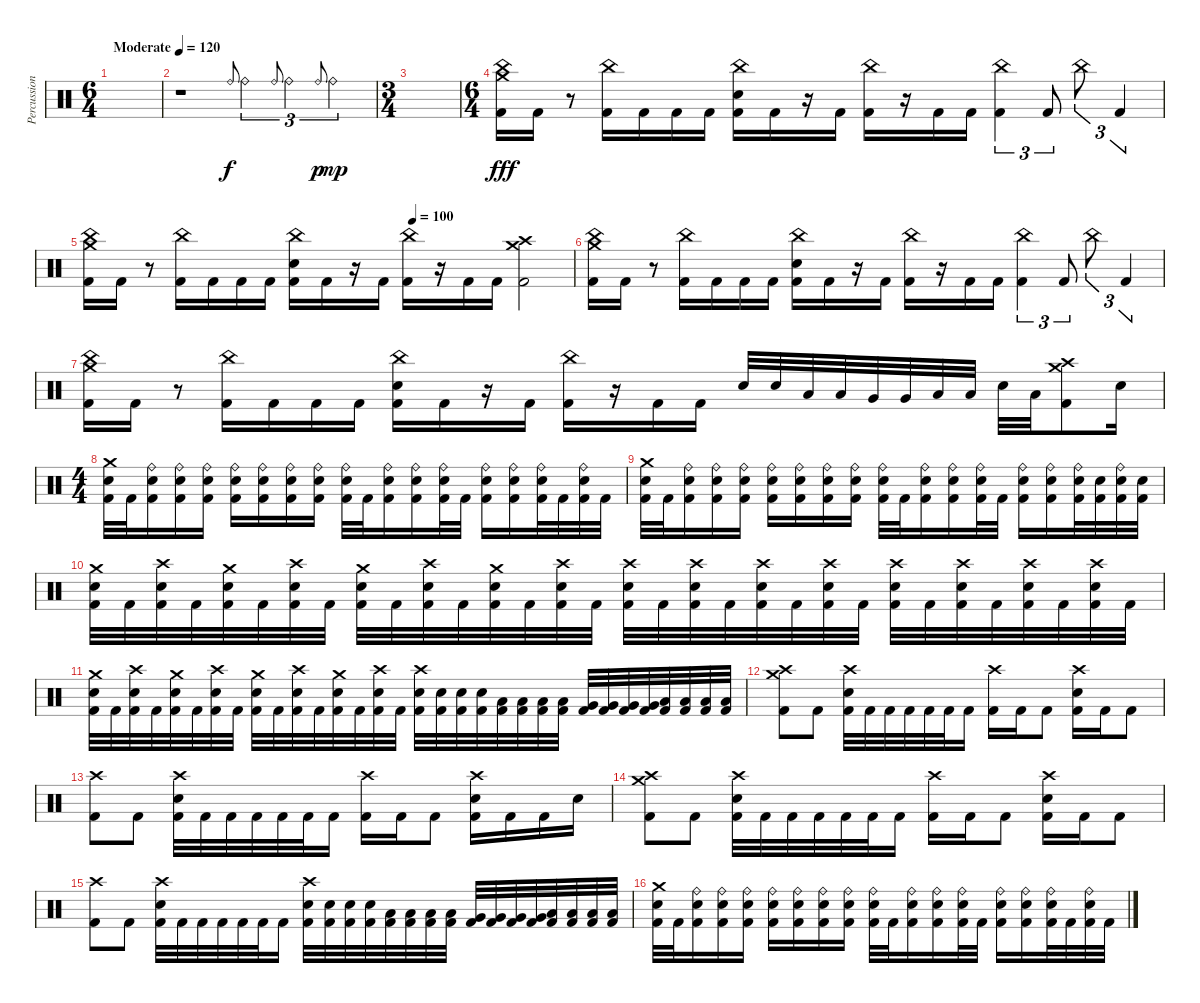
\track ("Percussion" "Percussion") {instrument percussion}
\staff {score}
\articulation defaults
\ts (6 4)
\tempo (120 "Moderate")
\clef neutral
\ks c
|
r.1 "Ride (bell)".8{gr onbeat} "Ride (bell)".4{tu (3 2)} "Ride (bell)".8{gr onbeat} "Ride (bell)".4{tu (3 2)} "Ride (bell)".8{gr onbeat dy p} "Ride (bell)".4{tu (3 2) dy mp} |
\ts (3 4)
|
\ts (6 4)
("China (hit)" "Crash medium (hit)" "Kick (hit) 2").16{dy fff} "Kick (hit) 2".16 r.8 ("China (hit)" "Kick (hit) 2").16 "Kick (hit) 2".16 "Kick (hit) 2".16 "Kick (hit) 2".16 ("China (hit)" "Electric Snare (hit)" "Kick (hit) 2").16 "Kick (hit) 2".16 r.16 "Kick (hit) 2".16 ("China (hit)" "Kick (hit) 2").16 r.16 "Kick (hit) 2".16 "Kick (hit) 2".16 ("China (hit)" "Kick (hit) 2").4{tu (3 2)} "Kick (hit) 2".8{tu (3 2)} "China (hit)".8{tu (3 2)} "Kick (hit) 2".4{tu (3 2)} |
\tempo (100 0.6666666666666666)
("China (hit)" "Crash medium (hit)" "Kick (hit) 2").16 "Kick (hit) 2".16 r.8 ("China (hit)" "Kick (hit) 2").16 "Kick (hit) 2".16 "Kick (hit) 2".16 "Kick (hit) 2".16 ("China (hit)" "Electric Snare (hit)" "Kick (hit) 2").16 "Kick (hit) 2".16 r.16 "Kick (hit) 2".16 ("China (hit)" "Kick (hit) 2").16 r.16 "Kick (hit) 2".16 "Kick (hit) 2".16 ("Crash high (hit)" "Crash medium (hit)" "Kick (hit) 2").2 |
("China (hit)" "Crash medium (hit)" "Kick (hit) 2").16 "Kick (hit) 2".16 r.8 ("China (hit)" "Kick (hit) 2").16 "Kick (hit) 2".16 "Kick (hit) 2".16 "Kick (hit) 2".16 ("China (hit)" "Electric Snare (hit)" "Kick (hit) 2").16 "Kick (hit) 2".16 r.16 "Kick (hit) 2".16 ("China (hit)" "Kick (hit) 2").16 r.16 "Kick (hit) 2".16 "Kick (hit) 2".16 ("China (hit)" "Kick (hit) 2").4{tu (3 2)} "Kick (hit) 2".8{tu (3 2)} "China (hit)".8{tu (3 2)} "Kick (hit) 2".4{tu (3 2)} |
("China (hit)" "Crash medium (hit)" "Kick (hit) 2").16 "Kick (hit) 2".16 r.8 ("China (hit)" "Kick (hit) 2").16 "Kick (hit) 2".16 "Kick (hit) 2".16 "Kick (hit) 2".16 ("China (hit)" "Electric Snare (hit)" "Kick (hit) 2").16 "Kick (hit) 2".16 r.16 "Kick (hit) 2".16 ("China (hit)" "Kick (hit) 2").16 r.16 "Kick (hit) 2".16 "Kick (hit) 2".16 "Electric Snare (hit)".32 "Electric Snare (hit)".32 "Low Tom (hit)".32 "Low Tom (hit)".32 "Very Low Tom (hit)".32 "Very Low Tom (hit)".32 "Low Floor Tom (hit)".32 "Low Floor Tom (hit)".32 "Electric Snare (hit)".32 "Low Tom (hit)".32 ("Crash high (hit)" "Crash medium (hit)" "Kick (hit) 2").8 "Electric Snare (hit)".16 |
\ts (4 4)
("Crash medium (hit)" "Electric Snare (hit)" "Kick (hit) 2").32 "Kick (hit) 2".32 ("Ride (bell)" "Electric Snare (hit)" "Kick (hit) 2").16 ("Ride (bell)" "Electric Snare (hit)" "Kick (hit) 2").16 ("Ride (bell)" "Electric Snare (hit)" "Kick (hit) 2").16 ("Ride (bell)" "Electric Snare (hit)" "Kick (hit) 2").16 ("Ride (bell)" "Electric Snare (hit)" "Kick (hit) 2").16 ("Ride (bell)" "Electric Snare (hit)" "Kick (hit) 2").16 ("Ride (bell)" "Electric Snare (hit)" "Kick (hit) 2").16 ("Ride (bell)" "Electric Snare (hit)" "Kick (hit) 2").32 "Kick (hit) 2".32 ("Ride (bell)" "Electric Snare (hit)" "Kick (hit) 2").16 ("Ride (bell)" "Electric Snare (hit)" "Kick (hit) 2").16 ("Ride (bell)" "Electric Snare (hit)" "Kick (hit) 2").32 "Kick (hit) 2".32 ("Ride (bell)" "Electric Snare (hit)" "Kick (hit) 2").16 ("Ride (bell)" "Electric Snare (hit)" "Kick (hit) 2").16 ("Ride (bell)" "Electric Snare (hit)" "Kick (hit) 2").32 "Kick (hit) 2".32 ("Ride (bell)" "Electric Snare (hit)" "Kick (hit) 2").32 "Kick (hit) 2".32 |
("Crash medium (hit)" "Electric Snare (hit)" "Kick (hit) 2").32 "Kick (hit) 2".32 ("Ride (bell)" "Electric Snare (hit)" "Kick (hit) 2").16 ("Ride (bell)" "Electric Snare (hit)" "Kick (hit) 2").16 ("Ride (bell)" "Electric Snare (hit)" "Kick (hit) 2").16 ("Ride (bell)" "Electric Snare (hit)" "Kick (hit) 2").16 ("Ride (bell)" "Electric Snare (hit)" "Kick (hit) 2").16 ("Ride (bell)" "Electric Snare (hit)" "Kick (hit) 2").16 ("Ride (bell)" "Electric Snare (hit)" "Kick (hit) 2").16 ("Ride (bell)" "Electric Snare (hit)" "Kick (hit) 2").32 "Kick (hit) 2".32 ("Ride (bell)" "Electric Snare (hit)" "Kick (hit) 2").16 ("Ride (bell)" "Electric Snare (hit)" "Kick (hit) 2").16 ("Ride (bell)" "Electric Snare (hit)" "Kick (hit) 2").32 "Kick (hit) 2".32 ("Ride (bell)" "Electric Snare (hit)" "Kick (hit) 2").16 ("Ride (bell)" "Electric Snare (hit)" "Kick (hit) 2").16 ("Ride (bell)" "Electric Snare (hit)" "Kick (hit) 2").32 ("Electric Snare (hit)" "Kick (hit) 2").32 ("Ride (bell)" "Electric Snare (hit)" "Kick (hit) 2").32 ("Electric Snare (hit)" "Kick (hit) 2").32 |
("Crash medium (hit)" "Electric Snare (hit)" "Kick (hit) 2").32 "Kick (hit) 2".32 ("Crash high (hit)" "Electric Snare (hit)" "Kick (hit) 2").32 "Kick (hit) 2".32 ("Crash medium (hit)" "Electric Snare (hit)" "Kick (hit) 2").32 "Kick (hit) 2".32 ("Crash high (hit)" "Electric Snare (hit)" "Kick (hit) 2").32 "Kick (hit) 2".32 ("Crash medium (hit)" "Electric Snare (hit)" "Kick (hit) 2").32 "Kick (hit) 2".32 ("Crash high (hit)" "Electric Snare (hit)" "Kick (hit) 2").32 "Kick (hit) 2".32 ("Crash medium (hit)" "Electric Snare (hit)" "Kick (hit) 2").32 "Kick (hit) 2".32 ("Crash high (hit)" "Electric Snare (hit)" "Kick (hit) 2").32 "Kick (hit) 2".32 ("Crash high (hit)" "Electric Snare (hit)" "Kick (hit) 2").32 "Kick (hit) 2".32 ("Crash high (hit)" "Electric Snare (hit)" "Kick (hit) 2").32 "Kick (hit) 2".32 ("Crash high (hit)" "Electric Snare (hit)" "Kick (hit) 2").32 "Kick (hit) 2".32 ("Crash high (hit)" "Electric Snare (hit)" "Kick (hit) 2").32 "Kick (hit) 2".32 ("Crash high (hit)" "Electric Snare (hit)" "Kick (hit) 2").32 "Kick (hit) 2".32 ("Crash high (hit)" "Electric Snare (hit)" "Kick (hit) 2").32 "Kick (hit) 2".32 ("Crash high (hit)" "Electric Snare (hit)" "Kick (hit) 2").32 "Kick (hit) 2".32 ("Crash high (hit)" "Electric Snare (hit)" "Kick (hit) 2").32 "Kick (hit) 2".32 |
("Crash medium (hit)" "Electric Snare (hit)" "Kick (hit) 2").32 "Kick (hit) 2".32 ("Crash high (hit)" "Electric Snare (hit)" "Kick (hit) 2").32 "Kick (hit) 2".32 ("Crash medium (hit)" "Electric Snare (hit)" "Kick (hit) 2").32 "Kick (hit) 2".32 ("Crash high (hit)" "Electric Snare (hit)" "Kick (hit) 2").32 "Kick (hit) 2".32 ("Crash medium (hit)" "Electric Snare (hit)" "Kick (hit) 2").32 "Kick (hit) 2".32 ("Crash high (hit)" "Electric Snare (hit)" "Kick (hit) 2").32 "Kick (hit) 2".32 ("Crash medium (hit)" "Electric Snare (hit)" "Kick (hit) 2").32 "Kick (hit) 2".32 ("Crash high (hit)" "Electric Snare (hit)" "Kick (hit) 2").32 "Kick (hit) 2".32 ("Crash high (hit)" "Electric Snare (hit)" "Kick (hit) 2").32 ("Electric Snare (hit)" "Kick (hit) 2").32 ("Electric Snare (hit)" "Kick (hit) 2").32 ("Electric Snare (hit)" "Kick (hit) 2").32 ("Low Tom (hit)" "Kick (hit) 2").32 ("Low Tom (hit)" "Kick (hit) 2").32 ("Low Tom (hit)" "Kick (hit) 2").32 ("Low Tom (hit)" "Kick (hit) 2").32 ("Very Low Tom (hit)" "Kick (hit) 2").32 ("Very Low Tom (hit)" "Kick (hit) 2").32 ("Very Low Tom (hit)" "Kick (hit) 2").32 ("Very Low Tom (hit)" "Kick (hit) 2").32 ("Low Floor Tom (hit)" "Kick (hit) 2").32 ("Low Floor Tom (hit)" "Kick (hit) 2").32 ("Low Floor Tom (hit)" "Kick (hit) 2").32 ("Low Floor Tom (hit)" "Kick (hit) 2").32 |
("Crash medium (hit)" "Crash high (hit)" "Kick (hit) 2").8 "Kick (hit) 2".8 ("Crash high (hit)" "Electric Snare (hit)" "Kick (hit) 2").32 "Kick (hit) 2".32 "Kick (hit) 2".32 "Kick (hit) 2".32 "Kick (hit) 2".32 "Kick (hit) 2".32 "Kick (hit) 2".16 ("Crash high (hit)" "Kick (hit) 2").16 "Kick (hit) 2".16 "Kick (hit) 2".8 ("Crash high (hit)" "Electric Snare (hit)" "Kick (hit) 2").16 "Kick (hit) 2".16 "Kick (hit) 2".8 |
("Crash high (hit)" "Kick (hit) 2").8 "Kick (hit) 2".8 ("Crash high (hit)" "Electric Snare (hit)" "Kick (hit) 2").32 "Kick (hit) 2".32 "Kick (hit) 2".32 "Kick (hit) 2".32 "Kick (hit) 2".32 "Kick (hit) 2".32 "Kick (hit) 2".16 ("Crash high (hit)" "Kick (hit) 2").16 "Kick (hit) 2".16 "Kick (hit) 2".8 ("Crash high (hit)" "Electric Snare (hit)" "Kick (hit) 2").16 "Kick (hit) 2".16 "Kick (hit) 2".16 "Electric Snare (hit)".16 |
("Crash medium (hit)" "Crash high (hit)" "Kick (hit) 2").8 "Kick (hit) 2".8 ("Crash high (hit)" "Electric Snare (hit)" "Kick (hit) 2").32 "Kick (hit) 2".32 "Kick (hit) 2".32 "Kick (hit) 2".32 "Kick (hit) 2".32 "Kick (hit) 2".32 "Kick (hit) 2".16 ("Crash high (hit)" "Kick (hit) 2").16 "Kick (hit) 2".16 "Kick (hit) 2".8 ("Crash high (hit)" "Electric Snare (hit)" "Kick (hit) 2").16 "Kick (hit) 2".16 "Kick (hit) 2".8 |
("Crash high (hit)" "Kick (hit) 2").8 "Kick (hit) 2".8 ("Crash high (hit)" "Electric Snare (hit)" "Kick (hit) 2").32 "Kick (hit) 2".32 "Kick (hit) 2".32 "Kick (hit) 2".32 "Kick (hit) 2".32 "Kick (hit) 2".32 "Kick (hit) 2".16 ("Crash high (hit)" "Electric Snare (hit)" "Kick (hit) 2").32 ("Electric Snare (hit)" "Kick (hit) 2").32 ("Electric Snare (hit)" "Kick (hit) 2").32 ("Electric Snare (hit)" "Kick (hit) 2").32 ("Low Tom (hit)" "Kick (hit) 2").32 ("Low Tom (hit)" "Kick (hit) 2").32 ("Low Tom (hit)" "Kick (hit) 2").32 ("Low Tom (hit)" "Kick (hit) 2").32 ("Very Low Tom (hit)" "Kick (hit) 2").32 ("Very Low Tom (hit)" "Kick (hit) 2").32 ("Very Low Tom (hit)" "Kick (hit) 2").32 ("Very Low Tom (hit)" "Kick (hit) 2").32 ("Low Floor Tom (hit)" "Kick (hit) 2").32 ("Low Floor Tom (hit)" "Kick (hit) 2").32 ("Low Floor Tom (hit)" "Kick (hit) 2").32 ("Low Floor Tom (hit)" "Kick (hit) 2").32 |
("Crash medium (hit)" "Electric Snare (hit)" "Kick (hit) 2").32 "Kick (hit) 2".32 ("Ride (bell)" "Electric Snare (hit)" "Kick (hit) 2").16 ("Ride (bell)" "Electric Snare (hit)" "Kick (hit) 2").16 ("Ride (bell)" "Electric Snare (hit)" "Kick (hit) 2").16 ("Ride (bell)" "Electric Snare (hit)" "Kick (hit) 2").16 ("Ride (bell)" "Electric Snare (hit)" "Kick (hit) 2").16 ("Ride (bell)" "Electric Snare (hit)" "Kick (hit) 2").16 ("Ride (bell)" "Electric Snare (hit)" "Kick (hit) 2").16 ("Ride (bell)" "Electric Snare (hit)" "Kick (hit) 2").32 "Kick (hit) 2".32 ("Ride (bell)" "Electric Snare (hit)" "Kick (hit) 2").16 ("Ride (bell)" "Electric Snare (hit)" "Kick (hit) 2").16 ("Ride (bell)" "Electric Snare (hit)" "Kick (hit) 2").32 "Kick (hit) 2".32 ("Ride (bell)" "Electric Snare (hit)" "Kick (hit) 2").16 ("Ride (bell)" "Electric Snare (hit)" "Kick (hit) 2").16 ("Ride (bell)" "Electric Snare (hit)" "Kick (hit) 2").32 "Kick (hit) 2".32 ("Ride (bell)" "Electric Snare (hit)" "Kick (hit) 2").32 "Kick (hit) 2".32
